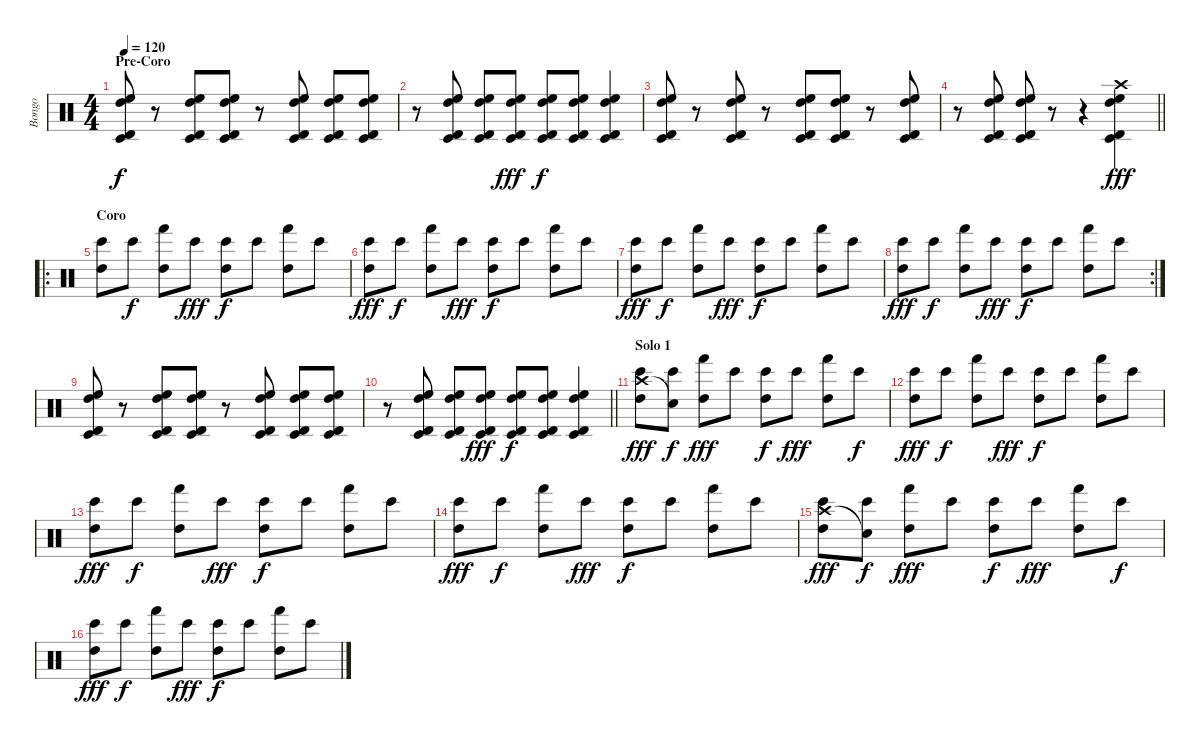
\track ("Bongo" "Bongo") {instrument percussion}
\staff {score}
\articulation defaults
\ts (4 4)
\section ("" "Pre-Coro")
\tempo 120
\clef neutral
\ks c
("Timbale low (hit)" "Timbale high (hit)" "High Floor Tom (hit)" "High Tom (hit)").8{dy f} r.8 ("Timbale low (hit)" "Timbale high (hit)" "High Floor Tom (hit)" "High Tom (hit)").8 ("Timbale low (hit)" "Timbale high (hit)" "High Floor Tom (hit)" "High Tom (hit)").8 r.8 ("Timbale low (hit)" "Timbale high (hit)" "High Floor Tom (hit)" "High Tom (hit)").8 ("Timbale low (hit)" "Timbale high (hit)" "High Floor Tom (hit)" "High Tom (hit)").8 ("Timbale low (hit)" "Timbale high (hit)" "High Floor Tom (hit)" "High Tom (hit)").8 |
r.8 ("Timbale low (hit)" "Timbale high (hit)" "High Floor Tom (hit)" "High Tom (hit)").8 ("Timbale low (hit)" "Timbale high (hit)" "High Floor Tom (hit)" "High Tom (hit)").8 ("Timbale low (hit)" "Timbale high (hit)" "High Floor Tom (hit)" "High Tom (hit)").8{dy fff} ("Timbale low (hit)" "Timbale high (hit)" "High Floor Tom (hit)" "High Tom (hit)").8{dy f} ("Timbale low (hit)" "Timbale high (hit)" "High Floor Tom (hit)" "High Tom (hit)").8 ("Timbale low (hit)" "Timbale high (hit)" "High Floor Tom (hit)" "High Tom (hit)").4 |
("Timbale low (hit)" "Timbale high (hit)" "High Floor Tom (hit)" "High Tom (hit)").8 r.8 ("Timbale low (hit)" "Timbale high (hit)" "High Floor Tom (hit)" "High Tom (hit)").8 r.8 ("Timbale low (hit)" "Timbale high (hit)" "High Floor Tom (hit)" "High Tom (hit)").8 ("Timbale low (hit)" "Timbale high (hit)" "High Floor Tom (hit)" "High Tom (hit)").8 r.8 ("Timbale low (hit)" "Timbale high (hit)" "High Floor Tom (hit)" "High Tom (hit)").8 |
\barLineRight lightlight
r.8 ("Timbale low (hit)" "Timbale high (hit)" "High Floor Tom (hit)" "High Tom (hit)").8 ("Timbale low (hit)" "Timbale high (hit)" "High Floor Tom (hit)" "High Tom (hit)").8 r.8 r.4 ("Crash high (hit)" "Timbale low (hit)" "Timbale high (hit)" "High Floor Tom (hit)" "High Tom (hit)").4{dy fff} |
\ro
\section ("" "Coro")
("Bongo High (hit)" "High Tom (hit)").8 "Bongo High (hit)".8{dy f} ("Hand (hit)" "High Tom (hit)").8 "Bongo High (hit)".8{dy fff} ("Bongo High (hit)" "High Tom (hit)").8{dy f} "Bongo High (hit)".8 ("Hand (hit)" "High Tom (hit)").8 "Bongo High (hit)".8 |
("Bongo High (hit)" "High Tom (hit)").8{dy fff} "Bongo High (hit)".8{dy f} ("Hand (hit)" "High Tom (hit)").8 "Bongo High (hit)".8{dy fff} ("Bongo High (hit)" "High Tom (hit)").8{dy f} "Bongo High (hit)".8 ("Hand (hit)" "High Tom (hit)").8 "Bongo High (hit)".8 |
("Bongo High (hit)" "High Tom (hit)").8{dy fff} "Bongo High (hit)".8{dy f} ("Hand (hit)" "High Tom (hit)").8 "Bongo High (hit)".8{dy fff} ("Bongo High (hit)" "High Tom (hit)").8{dy f} "Bongo High (hit)".8 ("Hand (hit)" "High Tom (hit)").8 "Bongo High (hit)".8 |
\rc 2
("Bongo High (hit)" "High Tom (hit)").8{dy fff} "Bongo High (hit)".8{dy f} ("Hand (hit)" "High Tom (hit)").8 "Bongo High (hit)".8{dy fff} ("Bongo High (hit)" "High Tom (hit)").8{dy f} "Bongo High (hit)".8 ("Hand (hit)" "High Tom (hit)").8 "Bongo High (hit)".8 |
("Timbale low (hit)" "Timbale high (hit)" "High Floor Tom (hit)" "High Tom (hit)").8 r.8 ("Timbale low (hit)" "Timbale high (hit)" "High Floor Tom (hit)" "High Tom (hit)").8 ("Timbale low (hit)" "Timbale high (hit)" "High Floor Tom (hit)" "High Tom (hit)").8 r.8 ("Timbale low (hit)" "Timbale high (hit)" "High Floor Tom (hit)" "High Tom (hit)").8 ("Timbale low (hit)" "Timbale high (hit)" "High Floor Tom (hit)" "High Tom (hit)").8 ("Timbale low (hit)" "Timbale high (hit)" "High Floor Tom (hit)" "High Tom (hit)").8 |
\barLineRight lightlight
r.8 ("Timbale low (hit)" "Timbale high (hit)" "High Floor Tom (hit)" "High Tom (hit)").8 ("Timbale low (hit)" "Timbale high (hit)" "High Floor Tom (hit)" "High Tom (hit)").8 ("Timbale low (hit)" "Timbale high (hit)" "High Floor Tom (hit)" "High Tom (hit)").8{dy fff} ("Timbale low (hit)" "Timbale high (hit)" "High Floor Tom (hit)" "High Tom (hit)").8{dy f} ("Timbale low (hit)" "Timbale high (hit)" "High Floor Tom (hit)" "High Tom (hit)").8 ("Timbale low (hit)" "Timbale high (hit)" "High Floor Tom (hit)" "High Tom (hit)").4 |
\section ("" "Solo 1")
("Crash high (hit)" "Bongo High (hit)" "High Tom (hit)").8{dy fff} ("Snare (hit)"{t} "Bongo High (hit)").8{dy f} ("Hand (hit)" "High Tom (hit)").8{dy fff} "Bongo High (hit)".8 ("Bongo High (hit)" "High Tom (hit)").8{dy f} "Bongo High (hit)".8{dy fff} ("Hand (hit)" "High Tom (hit)").8 "Bongo High (hit)".8{dy f} |
("Bongo High (hit)" "High Tom (hit)").8{dy fff} "Bongo High (hit)".8{dy f} ("Hand (hit)" "High Tom (hit)").8 "Bongo High (hit)".8{dy fff} ("Bongo High (hit)" "High Tom (hit)").8{dy f} "Bongo High (hit)".8 ("Hand (hit)" "High Tom (hit)").8 "Bongo High (hit)".8 |
("Bongo High (hit)" "High Tom (hit)").8{dy fff} "Bongo High (hit)".8{dy f} ("Hand (hit)" "High Tom (hit)").8 "Bongo High (hit)".8{dy fff} ("Bongo High (hit)" "High Tom (hit)").8{dy f} "Bongo High (hit)".8 ("Hand (hit)" "High Tom (hit)").8 "Bongo High (hit)".8 |
("Bongo High (hit)" "High Tom (hit)").8{dy fff} "Bongo High (hit)".8{dy f} ("Hand (hit)" "High Tom (hit)").8 "Bongo High (hit)".8{dy fff} ("Bongo High (hit)" "High Tom (hit)").8{dy f} "Bongo High (hit)".8 ("Hand (hit)" "High Tom (hit)").8 "Bongo High (hit)".8 |
("Crash high (hit)" "Bongo High (hit)" "High Tom (hit)").8{dy fff} ("Snare (hit)"{t} "Bongo High (hit)").8{dy f} ("Hand (hit)" "High Tom (hit)").8{dy fff} "Bongo High (hit)".8 ("Bongo High (hit)" "High Tom (hit)").8{dy f} "Bongo High (hit)".8{dy fff} ("Hand (hit)" "High Tom (hit)").8 "Bongo High (hit)".8{dy f} |
("Bongo High (hit)" "High Tom (hit)").8{dy fff} "Bongo High (hit)".8{dy f} ("Hand (hit)" "High Tom (hit)").8 "Bongo High (hit)".8{dy fff} ("Bongo High (hit)" "High Tom (hit)").8{dy f} "Bongo High (hit)".8 ("Hand (hit)" "High Tom (hit)").8 "Bongo High (hit)".8
